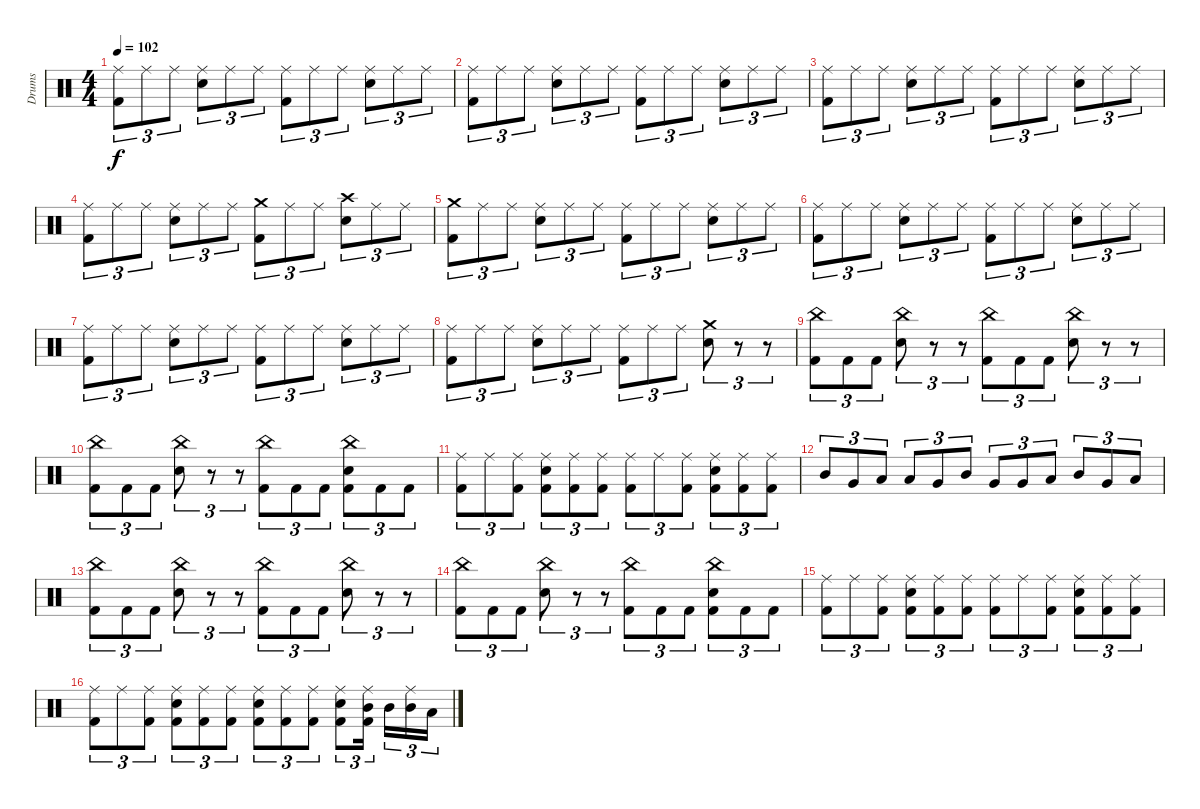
\track ("Drums" "Drums") {instrument percussion}
\staff {score}
\articulation defaults
\ts (4 4)
\tempo 102
\clef neutral
\ks c
("Ride (middle)" "Kick (hit) 2").8{tu (3 2) dy f} "Ride (middle)".8{tu (3 2)} "Ride (middle)".8{tu (3 2)} ("Ride (middle)" "Snare (hit) 2").8{tu (3 2)} "Ride (middle)".8{tu (3 2)} "Ride (middle)".8{tu (3 2)} ("Ride (middle)" "Kick (hit) 2").8{tu (3 2)} "Ride (middle)".8{tu (3 2)} "Ride (middle)".8{tu (3 2)} ("Ride (middle)" "Snare (hit) 2").8{tu (3 2)} "Ride (middle)".8{tu (3 2)} "Ride (middle)".8{tu (3 2)} |
("Ride (middle)" "Kick (hit) 2").8{tu (3 2)} "Ride (middle)".8{tu (3 2)} "Ride (middle)".8{tu (3 2)} ("Ride (middle)" "Snare (hit) 2").8{tu (3 2)} "Ride (middle)".8{tu (3 2)} "Ride (middle)".8{tu (3 2)} ("Ride (middle)" "Kick (hit) 2").8{tu (3 2)} "Ride (middle)".8{tu (3 2)} "Ride (middle)".8{tu (3 2)} ("Ride (middle)" "Snare (hit) 2").8{tu (3 2)} "Ride (middle)".8{tu (3 2)} "Ride (middle)".8{tu (3 2)} |
("Ride (middle)" "Kick (hit) 2").8{tu (3 2)} "Ride (middle)".8{tu (3 2)} "Ride (middle)".8{tu (3 2)} ("Ride (middle)" "Snare (hit) 2").8{tu (3 2)} "Ride (middle)".8{tu (3 2)} "Ride (middle)".8{tu (3 2)} ("Ride (middle)" "Kick (hit) 2").8{tu (3 2)} "Ride (middle)".8{tu (3 2)} "Ride (middle)".8{tu (3 2)} ("Ride (middle)" "Snare (hit) 2").8{tu (3 2)} "Ride (middle)".8{tu (3 2)} "Ride (middle)".8{tu (3 2)} |
("Ride (middle)" "Kick (hit) 2").8{tu (3 2)} "Ride (middle)".8{tu (3 2)} "Ride (middle)".8{tu (3 2)} ("Ride (middle)" "Snare (hit) 2").8{tu (3 2)} "Ride (middle)".8{tu (3 2)} "Ride (middle)".8{tu (3 2)} ("Crash medium (hit)" "Kick (hit) 2").8{tu (3 2)} "Ride (middle)".8{tu (3 2)} "Ride (middle)".8{tu (3 2)} ("Crash high (hit)" "Snare (hit) 2").8{tu (3 2)} "Ride (middle)".8{tu (3 2)} "Ride (middle)".8{tu (3 2)} |
("Crash medium (hit)" "Kick (hit) 2").8{tu (3 2)} "Ride (middle)".8{tu (3 2)} "Ride (middle)".8{tu (3 2)} ("Ride (middle)" "Snare (hit) 2").8{tu (3 2)} "Ride (middle)".8{tu (3 2)} "Ride (middle)".8{tu (3 2)} ("Ride (middle)" "Kick (hit) 2").8{tu (3 2)} "Ride (middle)".8{tu (3 2)} "Ride (middle)".8{tu (3 2)} ("Ride (middle)" "Snare (hit) 2").8{tu (3 2)} "Ride (middle)".8{tu (3 2)} "Ride (middle)".8{tu (3 2)} |
("Ride (middle)" "Kick (hit) 2").8{tu (3 2)} "Ride (middle)".8{tu (3 2)} "Ride (middle)".8{tu (3 2)} ("Ride (middle)" "Snare (hit) 2").8{tu (3 2)} "Ride (middle)".8{tu (3 2)} "Ride (middle)".8{tu (3 2)} ("Ride (middle)" "Kick (hit) 2").8{tu (3 2)} "Ride (middle)".8{tu (3 2)} "Ride (middle)".8{tu (3 2)} ("Ride (middle)" "Snare (hit) 2").8{tu (3 2)} "Ride (middle)".8{tu (3 2)} "Ride (middle)".8{tu (3 2)} |
("Ride (middle)" "Kick (hit) 2").8{tu (3 2)} "Ride (middle)".8{tu (3 2)} "Ride (middle)".8{tu (3 2)} ("Ride (middle)" "Snare (hit) 2").8{tu (3 2)} "Ride (middle)".8{tu (3 2)} "Ride (middle)".8{tu (3 2)} ("Ride (middle)" "Kick (hit) 2").8{tu (3 2)} "Ride (middle)".8{tu (3 2)} "Ride (middle)".8{tu (3 2)} ("Ride (middle)" "Snare (hit) 2").8{tu (3 2)} "Ride (middle)".8{tu (3 2)} "Ride (middle)".8{tu (3 2)} |
("Ride (middle)" "Kick (hit) 2").8{tu (3 2)} "Ride (middle)".8{tu (3 2)} "Ride (middle)".8{tu (3 2)} ("Ride (middle)" "Snare (hit) 2").8{tu (3 2)} "Ride (middle)".8{tu (3 2)} "Ride (middle)".8{tu (3 2)} ("Ride (middle)" "Kick (hit) 2").8{tu (3 2)} "Ride (middle)".8{tu (3 2)} "Ride (middle)".8{tu (3 2)} ("Crash medium (hit)" "Snare (hit) 2").8{tu (3 2)} r.8{tu (3 2)} r.8{tu (3 2)} |
("China (hit)" "Kick (hit) 2").8{tu (3 2)} "Kick (hit) 2".8{tu (3 2)} "Kick (hit) 2".8{tu (3 2)} ("China (hit)" "Snare (hit) 2").8{tu (3 2)} r.8{tu (3 2)} r.8{tu (3 2)} ("China (hit)" "Kick (hit) 2").8{tu (3 2)} "Kick (hit) 2".8{tu (3 2)} "Kick (hit) 2".8{tu (3 2)} ("China (hit)" "Snare (hit) 2").8{tu (3 2)} r.8{tu (3 2)} r.8{tu (3 2)} |
("China (hit)" "Kick (hit) 2").8{tu (3 2)} "Kick (hit) 2".8{tu (3 2)} "Kick (hit) 2".8{tu (3 2)} ("China (hit)" "Snare (hit) 2").8{tu (3 2)} r.8{tu (3 2)} r.8{tu (3 2)} ("China (hit)" "Kick (hit) 2").8{tu (3 2)} "Kick (hit) 2".8{tu (3 2)} "Kick (hit) 2".8{tu (3 2)} ("China (hit)" "Snare (hit) 2" "Kick (hit) 2").8{tu (3 2)} "Kick (hit) 2".8{tu (3 2)} "Kick (hit) 2".8{tu (3 2)} |
("Ride (middle)" "Kick (hit) 2").8{tu (3 2)} "Ride (middle)".8{tu (3 2)} ("Ride (middle)" "Kick (hit) 2").8{tu (3 2)} ("Ride (middle)" "Snare (hit) 2" "Kick (hit) 2").8{tu (3 2)} ("Ride (middle)" "Kick (hit) 2").8{tu (3 2)} ("Ride (middle)" "Kick (hit) 2").8{tu (3 2)} ("Ride (middle)" "Kick (hit) 2").8{tu (3 2)} "Ride (middle)".8{tu (3 2)} ("Ride (middle)" "Kick (hit) 2").8{tu (3 2)} ("Ride (middle)" "Snare (hit) 2" "Kick (hit) 2").8{tu (3 2)} ("Ride (middle)" "Kick (hit) 2").8{tu (3 2)} ("Ride (middle)" "Kick (hit) 2").8{tu (3 2)} |
"Mid Tom (hit)".8{tu (3 2)} "Very Low Tom (hit)".8{tu (3 2)} "Low Floor Tom (hit)".8{tu (3 2)} "Low Floor Tom (hit)".8{tu (3 2)} "Very Low Tom (hit)".8{tu (3 2)} "Mid Tom (hit)".8{tu (3 2)} "Very Low Tom (hit)".8{tu (3 2)} "Very Low Tom (hit)".8{tu (3 2)} "Low Floor Tom (hit)".8{tu (3 2)} "Mid Tom (hit)".8{tu (3 2)} "Very Low Tom (hit)".8{tu (3 2)} "Low Floor Tom (hit)".8{tu (3 2)} |
("China (hit)" "Kick (hit) 2").8{tu (3 2)} "Kick (hit) 2".8{tu (3 2)} "Kick (hit) 2".8{tu (3 2)} ("China (hit)" "Snare (hit) 2").8{tu (3 2)} r.8{tu (3 2)} r.8{tu (3 2)} ("China (hit)" "Kick (hit) 2").8{tu (3 2)} "Kick (hit) 2".8{tu (3 2)} "Kick (hit) 2".8{tu (3 2)} ("China (hit)" "Snare (hit) 2").8{tu (3 2)} r.8{tu (3 2)} r.8{tu (3 2)} |
("China (hit)" "Kick (hit) 2").8{tu (3 2)} "Kick (hit) 2".8{tu (3 2)} "Kick (hit) 2".8{tu (3 2)} ("China (hit)" "Snare (hit) 2").8{tu (3 2)} r.8{tu (3 2)} r.8{tu (3 2)} ("China (hit)" "Kick (hit) 2").8{tu (3 2)} "Kick (hit) 2".8{tu (3 2)} "Kick (hit) 2".8{tu (3 2)} ("China (hit)" "Snare (hit) 2" "Kick (hit) 2").8{tu (3 2)} "Kick (hit) 2".8{tu (3 2)} "Kick (hit) 2".8{tu (3 2)} |
("Ride (middle)" "Kick (hit) 2").8{tu (3 2)} "Ride (middle)".8{tu (3 2)} ("Ride (middle)" "Kick (hit) 2").8{tu (3 2)} ("Ride (middle)" "Snare (hit) 2" "Kick (hit) 2").8{tu (3 2)} ("Ride (middle)" "Kick (hit) 2").8{tu (3 2)} ("Ride (middle)" "Kick (hit) 2").8{tu (3 2)} ("Ride (middle)" "Kick (hit) 2").8{tu (3 2)} "Ride (middle)".8{tu (3 2)} ("Ride (middle)" "Kick (hit) 2").8{tu (3 2)} ("Ride (middle)" "Snare (hit) 2" "Kick (hit) 2").8{tu (3 2)} ("Ride (middle)" "Kick (hit) 2").8{tu (3 2)} ("Ride (middle)" "Kick (hit) 2").8{tu (3 2)} |
("Ride (middle)" "Kick (hit) 2").8{tu (3 2)} "Ride (middle)".8{tu (3 2)} ("Ride (middle)" "Kick (hit) 2").8{tu (3 2)} ("Ride (middle)" "Snare (hit) 2" "Kick (hit) 2").8{tu (3 2)} ("Ride (middle)" "Kick (hit) 2").8{tu (3 2)} ("Ride (middle)" "Kick (hit) 2").8{tu (3 2)} ("Ride (middle)" "Snare (hit) 2" "Kick (hit) 2").8{tu (3 2)} ("Ride (middle)" "Kick (hit) 2").8{tu (3 2)} ("Ride (middle)" "Kick (hit) 2").8{tu (3 2)} ("Ride (middle)" "Snare (hit) 2" "Kick (hit) 2").8{tu (3 2)} ("Ride (middle)" "Mid Tom (hit)" "Kick (hit) 2").16{tu (3 2)} "Mid Tom (hit)".16{tu (3 2)} ("Ride (middle)" "Mid Tom (hit)").16{tu (3 2)} "Low Tom (hit)".16{tu (3 2)}
